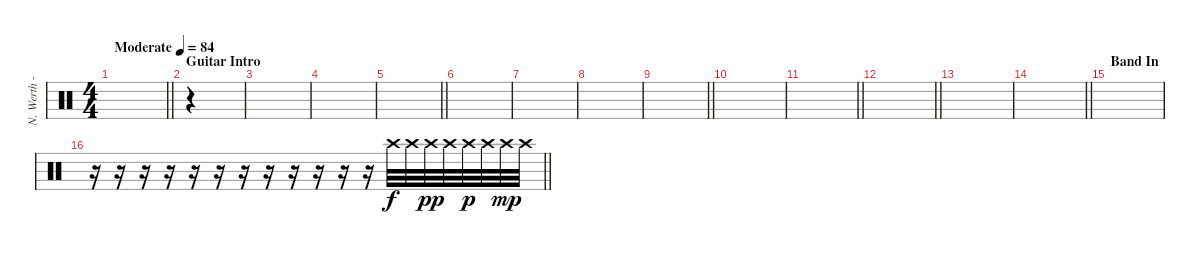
\track ("N. Werth - Percussion" "N. Werth -") {instrument percussion}
\staff {score}
\articulation defaults
\ts (4 4)
\tempo (84 "Moderate")
\clef neutral
\barLineRight lightlight
\ks c
|
\section ("" "Guitar Intro")
r.4 |
|
|
\barLineRight lightlight
|
|
|
|
\barLineRight lightlight
|
|
\barLineRight lightlight
|
\barLineRight lightlight
|
|
\barLineRight lightlight
|
\section ("" "Band In")
|
\barLineRight lightlight
r.16 r.16 r.16 r.16 r.16 r.16 r.16 r.16 r.16 r.16 r.16 r.16 "Crash high (hit)".32 "Crash high (hit)".32 "Crash high (hit)".32{dy pp} "Crash high (hit)".32 "Crash high (hit)".32{dy p} "Crash high (hit)".32 "Crash high (hit)".32{dy mp} "Crash high (hit)".32
